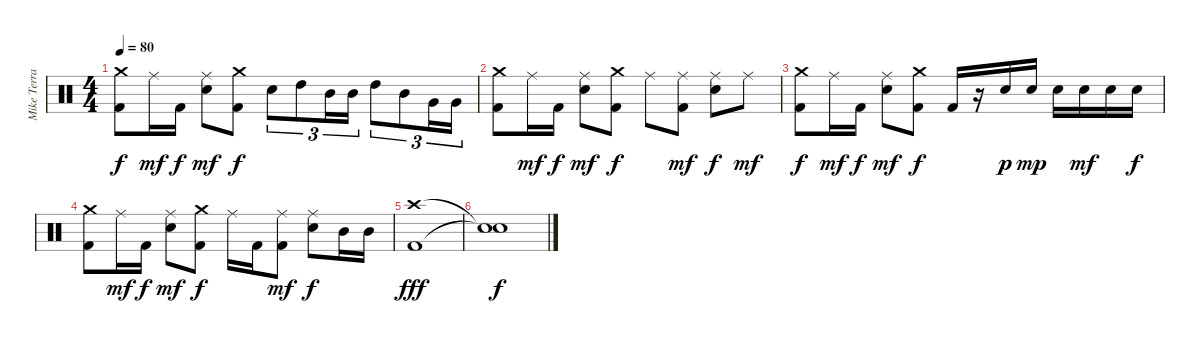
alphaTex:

\track ("Mike Terrana" "Mike Terra") {instrument percussion}
\staff {score}
\articulation defaults
\ts (4 4)
\tempo 80
\clef neutral
\ks c
("Crash medium (hit)" "Kick (hit) 2").8{dy f} "Ride (middle)".16{dy mf} "Kick (hit) 2".16{dy f} ("Ride (middle)" "Electric Snare (hit)").8{dy mf} ("Crash medium (hit)" "Kick (hit) 2").8{dy f} "Electric Snare (hit)".8{tu (3 2)} "High Tom (hit)".8{tu (3 2)} "Mid Tom (hit)".16{tu (3 2)} "Mid Tom (hit)".16{tu (3 2)} "High Tom (hit)".8{tu (3 2)} "Mid Tom (hit)".8{tu (3 2)} "Very Low Tom (hit)".16{tu (3 2)} "Very Low Tom (hit)".16{tu (3 2)} |
("Crash medium (hit)" "Kick (hit) 2").8 "Ride (middle)".16{dy mf} "Kick (hit) 2".16{dy f} ("Ride (middle)" "Electric Snare (hit)").8{dy mf} ("Crash medium (hit)" "Kick (hit) 2").8{dy f} "Ride (middle)".8 ("Ride (middle)" "Kick (hit) 2").8{dy mf} ("Ride (middle)" "Electric Snare (hit)").8{dy f} "Ride (middle)".8{dy mf} |
("Crash medium (hit)" "Kick (hit) 2").8{dy f} "Ride (middle)".16{dy mf} "Kick (hit) 2".16{dy f} ("Ride (middle)" "Electric Snare (hit)").8{dy mf} ("Crash medium (hit)" "Kick (hit) 2").8{dy f} "Kick (hit) 2".16 r.16 "Electric Snare (hit)".16{dy p} "Electric Snare (hit)".16{dy mp} "Electric Snare (hit)".16 "Electric Snare (hit)".16{dy mf} "Electric Snare (hit)".16 "Electric Snare (hit)".16{dy f} |
("Crash medium (hit)" "Kick (hit) 2").8 "Ride (middle)".16{dy mf} "Kick (hit) 2".16{dy f} ("Ride (middle)" "Electric Snare (hit)").8{dy mf} ("Crash medium (hit)" "Kick (hit) 2").8{dy f} "Ride (middle)".16 "Kick (hit) 2".16 ("Ride (middle)" "Kick (hit) 2").8{dy mf} ("Ride (middle)" "Electric Snare (hit)").8{dy f} "Mid Tom (hit)".16 "Mid Tom (hit)".16 |
("Crash high (hit)" "Kick (hit) 2").1{dy fff} |
("Snare (hit)"{t} "Snare (hit)"{t}).1{dy f}
